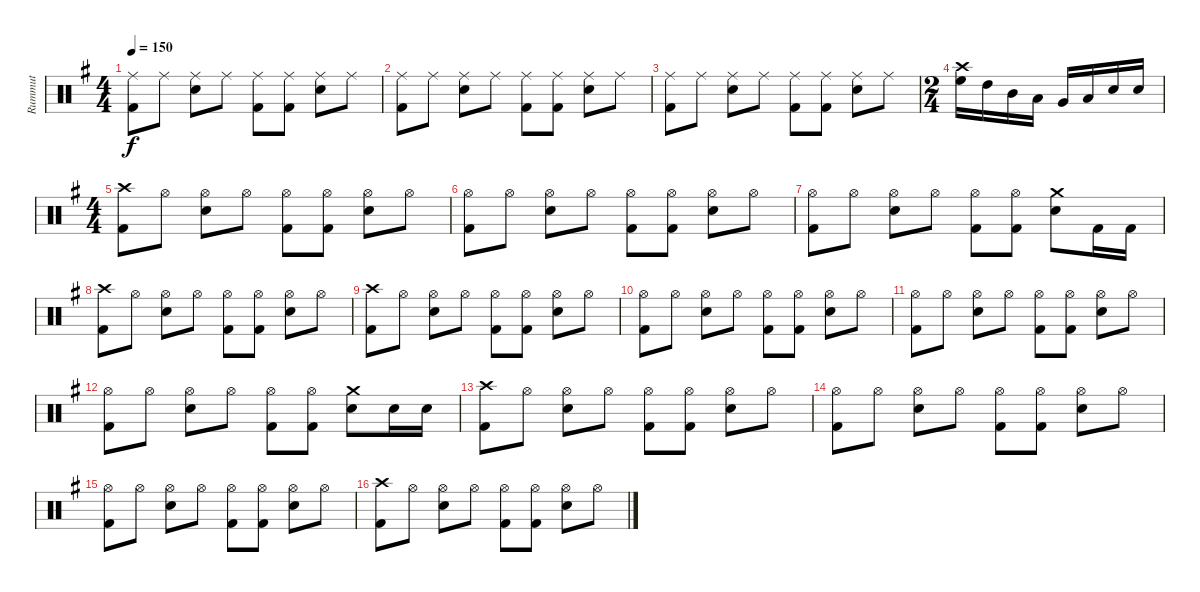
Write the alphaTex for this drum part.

\track ("Rummut" "Rummut") {instrument percussion}
\staff {score}
\articulation defaults
\ts (4 4)
\tempo 150
\clef neutral
\ks g
("Ride (middle)" "Kick (hit) 2").8{dy f} "Ride (middle)".8 ("Ride (middle)" "Electric Snare (hit)").8 "Ride (middle)".8 ("Ride (middle)" "Kick (hit) 2").8 ("Ride (middle)" "Kick (hit) 2").8 ("Ride (middle)" "Electric Snare (hit)").8 "Ride (middle)".8 |
("Ride (middle)" "Kick (hit) 2").8 "Ride (middle)".8 ("Ride (middle)" "Electric Snare (hit)").8 "Ride (middle)".8 ("Ride (middle)" "Kick (hit) 2").8 ("Ride (middle)" "Kick (hit) 2").8 ("Ride (middle)" "Electric Snare (hit)").8 "Ride (middle)".8 |
("Ride (middle)" "Kick (hit) 2").8 "Ride (middle)".8 ("Ride (middle)" "Electric Snare (hit)").8 "Ride (middle)".8 ("Ride (middle)" "Kick (hit) 2").8 ("Ride (middle)" "Kick (hit) 2").8 ("Ride (middle)" "Electric Snare (hit)").8 "Ride (middle)".8 |
\ts (2 4)
("Crash high (hit)" "High Floor Tom (hit)").16 "High Tom (hit)".16 "Mid Tom (hit)".16 "Low Tom (hit)".16 "Very Low Tom (hit)".16 "Low Floor Tom (hit)".16 "Electric Snare (hit)".16 "Electric Snare (hit)".16 |
\ts (4 4)
("Crash high (hit)" "Kick (hit) 2").8 "Hi-Hat (open)".8 ("Hi-Hat (open)" "Electric Snare (hit)").8 "Hi-Hat (open)".8 ("Hi-Hat (open)" "Kick (hit) 2").8 ("Hi-Hat (open)" "Kick (hit) 2").8 ("Hi-Hat (open)" "Electric Snare (hit)").8 "Hi-Hat (open)".8 |
("Hi-Hat (open)" "Kick (hit) 2").8 "Hi-Hat (open)".8 ("Hi-Hat (open)" "Electric Snare (hit)").8 "Hi-Hat (open)".8 ("Hi-Hat (open)" "Kick (hit) 2").8 ("Hi-Hat (open)" "Kick (hit) 2").8 ("Hi-Hat (open)" "Electric Snare (hit)").8 "Hi-Hat (open)".8 |
("Hi-Hat (open)" "Kick (hit) 2").8 "Hi-Hat (open)".8 ("Hi-Hat (open)" "Electric Snare (hit)").8 "Hi-Hat (open)".8 ("Hi-Hat (open)" "Kick (hit) 2").8 ("Hi-Hat (open)" "Kick (hit) 2").8 ("Crash medium (hit)" "Electric Snare (hit)").8 "Kick (hit) 2".16 "Kick (hit) 2".16 |
("Crash high (hit)" "Kick (hit) 2").8 "Hi-Hat (open)".8 ("Hi-Hat (open)" "Electric Snare (hit)").8 "Hi-Hat (open)".8 ("Hi-Hat (open)" "Kick (hit) 2").8 ("Hi-Hat (open)" "Kick (hit) 2").8 ("Hi-Hat (open)" "Electric Snare (hit)").8 "Hi-Hat (open)".8 |
("Crash high (hit)" "Kick (hit) 2").8 "Hi-Hat (open)".8 ("Hi-Hat (open)" "Electric Snare (hit)").8 "Hi-Hat (open)".8 ("Hi-Hat (open)" "Kick (hit) 2").8 ("Hi-Hat (open)" "Kick (hit) 2").8 ("Hi-Hat (open)" "Electric Snare (hit)").8 "Hi-Hat (open)".8 |
("Hi-Hat (open)" "Kick (hit) 2").8 "Hi-Hat (open)".8 ("Hi-Hat (open)" "Electric Snare (hit)").8 "Hi-Hat (open)".8 ("Hi-Hat (open)" "Kick (hit) 2").8 ("Hi-Hat (open)" "Kick (hit) 2").8 ("Hi-Hat (open)" "Electric Snare (hit)").8 "Hi-Hat (open)".8 |
("Hi-Hat (open)" "Kick (hit) 2").8 "Hi-Hat (open)".8 ("Hi-Hat (open)" "Electric Snare (hit)").8 "Hi-Hat (open)".8 ("Hi-Hat (open)" "Kick (hit) 2").8 ("Hi-Hat (open)" "Kick (hit) 2").8 ("Hi-Hat (open)" "Electric Snare (hit)").8 "Hi-Hat (open)".8 |
("Hi-Hat (open)" "Kick (hit) 2").8 "Hi-Hat (open)".8 ("Hi-Hat (open)" "Electric Snare (hit)").8 "Hi-Hat (open)".8 ("Hi-Hat (open)" "Kick (hit) 2").8 ("Hi-Hat (open)" "Kick (hit) 2").8 ("Crash medium (hit)" "Electric Snare (hit)").8 "Electric Snare (hit)".16 "Electric Snare (hit)".16 |
("Crash high (hit)" "Kick (hit) 2").8 "Hi-Hat (open)".8 ("Hi-Hat (open)" "Electric Snare (hit)").8 "Hi-Hat (open)".8 ("Hi-Hat (open)" "Kick (hit) 2").8 ("Hi-Hat (open)" "Kick (hit) 2").8 ("Hi-Hat (open)" "Electric Snare (hit)").8 "Hi-Hat (open)".8 |
("Hi-Hat (open)" "Kick (hit) 2").8 "Hi-Hat (open)".8 ("Hi-Hat (open)" "Electric Snare (hit)").8 "Hi-Hat (open)".8 ("Hi-Hat (open)" "Kick (hit) 2").8 ("Hi-Hat (open)" "Kick (hit) 2").8 ("Hi-Hat (open)" "Electric Snare (hit)").8 "Hi-Hat (open)".8 |
("Hi-Hat (open)" "Kick (hit) 2").8 "Hi-Hat (open)".8 ("Hi-Hat (open)" "Electric Snare (hit)").8 "Hi-Hat (open)".8 ("Hi-Hat (open)" "Kick (hit) 2").8 ("Hi-Hat (open)" "Kick (hit) 2").8 ("Hi-Hat (open)" "Electric Snare (hit)").8 "Hi-Hat (open)".8 |
("Crash high (hit)" "Kick (hit) 2").8 "Hi-Hat (open)".8 ("Hi-Hat (open)" "Electric Snare (hit)").8 "Hi-Hat (open)".8 ("Hi-Hat (open)" "Kick (hit) 2").8 ("Hi-Hat (open)" "Kick (hit) 2").8 ("Hi-Hat (open)" "Electric Snare (hit)").8 "Hi-Hat (open)".8
